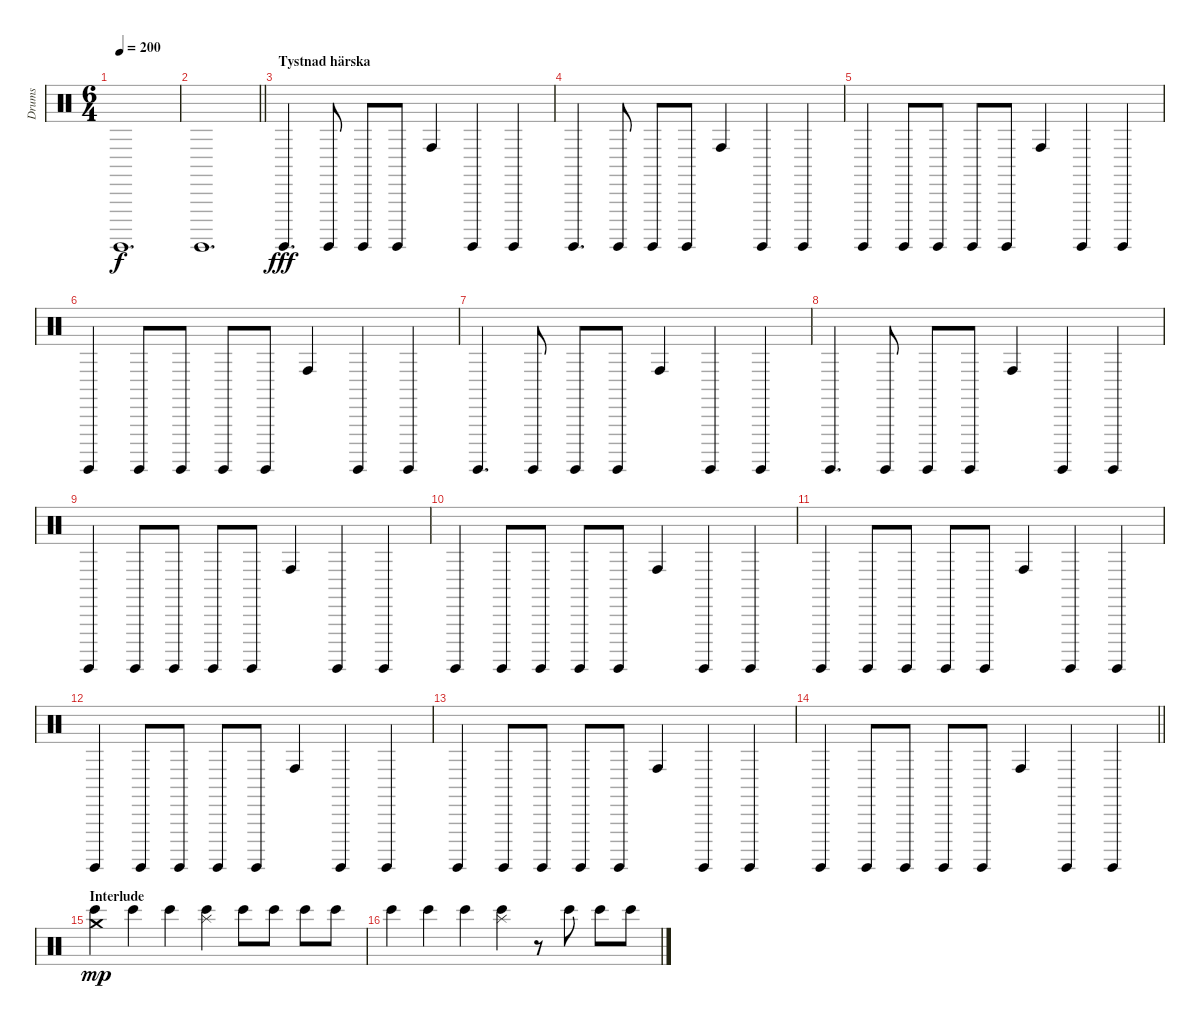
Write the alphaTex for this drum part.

\track ("Drums" "Drums") {instrument percussion}
\staff {score}
\articulation defaults
\ts (6 4)
\tempo 200
\clef neutral
\ks c "Surdo (hit)".1{d dy f}
|
\barLineRight lightlight "Surdo (hit)".1{d}
|
\section ("" "Tystnad härska")
"Surdo (hit)".4{d dy fff} "Surdo (hit)".8 "Surdo (hit)".8 "Surdo (hit)".8 "Conga high (hit)".4 "Surdo (hit)".4 "Surdo (hit)".4 |
"Surdo (hit)".4{d} "Surdo (hit)".8 "Surdo (hit)".8 "Surdo (hit)".8 "Conga high (hit)".4 "Surdo (hit)".4 "Surdo (hit)".4 |
"Surdo (hit)".4 "Surdo (hit)".8 "Surdo (hit)".8 "Surdo (hit)".8 "Surdo (hit)".8 "Conga high (hit)".4 "Surdo (hit)".4 "Surdo (hit)".4 |
"Surdo (hit)".4 "Surdo (hit)".8 "Surdo (hit)".8 "Surdo (hit)".8 "Surdo (hit)".8 "Conga high (hit)".4 "Surdo (hit)".4 "Surdo (hit)".4 |
"Surdo (hit)".4{d} "Surdo (hit)".8 "Surdo (hit)".8 "Surdo (hit)".8 "Conga high (hit)".4 "Surdo (hit)".4 "Surdo (hit)".4 |
"Surdo (hit)".4{d} "Surdo (hit)".8 "Surdo (hit)".8 "Surdo (hit)".8 "Conga high (hit)".4 "Surdo (hit)".4 "Surdo (hit)".4 |
"Surdo (hit)".4 "Surdo (hit)".8 "Surdo (hit)".8 "Surdo (hit)".8 "Surdo (hit)".8 "Conga high (hit)".4 "Surdo (hit)".4 "Surdo (hit)".4 |
"Surdo (hit)".4 "Surdo (hit)".8 "Surdo (hit)".8 "Surdo (hit)".8 "Surdo (hit)".8 "Conga high (hit)".4 "Surdo (hit)".4 "Surdo (hit)".4 |
"Surdo (hit)".4 "Surdo (hit)".8 "Surdo (hit)".8 "Surdo (hit)".8 "Surdo (hit)".8 "Conga high (hit)".4 "Surdo (hit)".4 "Surdo (hit)".4 |
"Surdo (hit)".4 "Surdo (hit)".8 "Surdo (hit)".8 "Surdo (hit)".8 "Surdo (hit)".8 "Conga high (hit)".4 "Surdo (hit)".4 "Surdo (hit)".4 |
"Surdo (hit)".4 "Surdo (hit)".8 "Surdo (hit)".8 "Surdo (hit)".8 "Surdo (hit)".8 "Conga high (hit)".4 "Surdo (hit)".4 "Surdo (hit)".4 |
\barLineRight lightlight "Surdo (hit)".4 "Surdo (hit)".8 "Surdo (hit)".8 "Surdo (hit)".8 "Surdo (hit)".8 "Conga high (hit)".4 "Surdo (hit)".4 "Surdo (hit)".4
|
\section ("" "Interlude")
("Crash medium (hit)" "Bongo High (hit)").4{dy mp volume 8} "Bongo High (hit)".4 "Bongo High (hit)".4 ("Splash (hit)" "Bongo High (hit)").4 "Bongo High (hit)".8 "Bongo High (hit)".8 "Bongo High (hit)".8 "Bongo High (hit)".8 |
"Bongo High (hit)".4 "Bongo High (hit)".4 "Bongo High (hit)".4 ("Splash (hit)" "Bongo High (hit)").4 r.8 "Bongo High (hit)".8 "Bongo High (hit)".8 "Bongo High (hit)".8
